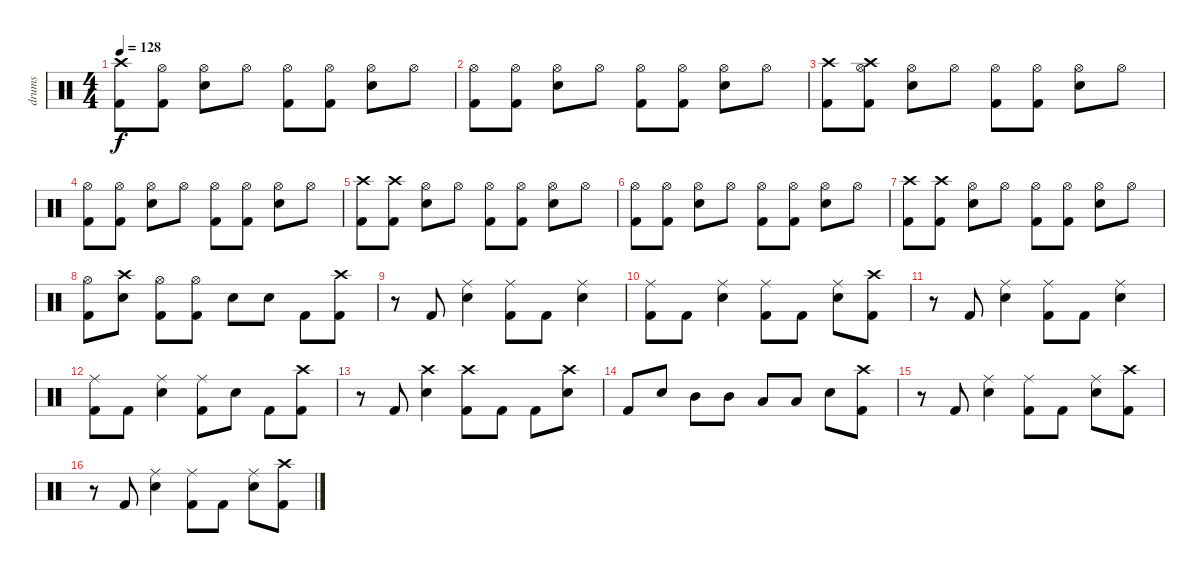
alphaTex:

\track ("drums" "drums") {instrument percussion}
\staff {score}
\articulation defaults
\ts (4 4)
\tempo 128
\clef neutral
\ks c
("Crash high (hit)" "Kick (hit) 2").8{dy f} ("Hi-Hat (open)" "Kick (hit) 2").8 ("Hi-Hat (open)" "Electric Snare (hit)").8 "Hi-Hat (open)".8 ("Hi-Hat (open)" "Kick (hit) 2").8 ("Hi-Hat (open)" "Kick (hit) 2").8 ("Hi-Hat (open)" "Electric Snare (hit)").8 "Hi-Hat (open)".8 |
("Hi-Hat (open)" "Kick (hit) 2").8 ("Hi-Hat (open)" "Kick (hit) 2").8 ("Hi-Hat (open)" "Electric Snare (hit)").8 "Hi-Hat (open)".8 ("Hi-Hat (open)" "Kick (hit) 2").8 ("Hi-Hat (open)" "Kick (hit) 2").8 ("Hi-Hat (open)" "Electric Snare (hit)").8 "Hi-Hat (open)".8 |
("Crash high (hit)" "Kick (hit) 2").8 ("Crash high (hit)" "Hi-Hat (open)" "Kick (hit) 2").8 ("Hi-Hat (open)" "Electric Snare (hit)").8 "Hi-Hat (open)".8 ("Hi-Hat (open)" "Kick (hit) 2").8 ("Hi-Hat (open)" "Kick (hit) 2").8 ("Hi-Hat (open)" "Electric Snare (hit)").8 "Hi-Hat (open)".8 |
("Hi-Hat (open)" "Kick (hit) 2").8 ("Hi-Hat (open)" "Kick (hit) 2").8 ("Hi-Hat (open)" "Electric Snare (hit)").8 "Hi-Hat (open)".8 ("Hi-Hat (open)" "Kick (hit) 2").8 ("Hi-Hat (open)" "Kick (hit) 2").8 ("Hi-Hat (open)" "Electric Snare (hit)").8 "Hi-Hat (open)".8 |
("Crash high (hit)" "Kick (hit) 2").8 ("Crash high (hit)" "Kick (hit) 2").8 ("Hi-Hat (open)" "Electric Snare (hit)").8 "Hi-Hat (open)".8 ("Hi-Hat (open)" "Kick (hit) 2").8 ("Hi-Hat (open)" "Kick (hit) 2").8 ("Hi-Hat (open)" "Electric Snare (hit)").8 "Hi-Hat (open)".8 |
("Hi-Hat (open)" "Kick (hit) 2").8 ("Hi-Hat (open)" "Kick (hit) 2").8 ("Hi-Hat (open)" "Electric Snare (hit)").8 "Hi-Hat (open)".8 ("Hi-Hat (open)" "Kick (hit) 2").8 ("Hi-Hat (open)" "Kick (hit) 2").8 ("Hi-Hat (open)" "Electric Snare (hit)").8 "Hi-Hat (open)".8 |
("Crash high (hit)" "Kick (hit) 2").8 ("Crash high (hit)" "Kick (hit) 2").8 ("Hi-Hat (open)" "Electric Snare (hit)").8 "Hi-Hat (open)".8 ("Hi-Hat (open)" "Kick (hit) 2").8 ("Hi-Hat (open)" "Kick (hit) 2").8 ("Hi-Hat (open)" "Electric Snare (hit)").8 "Hi-Hat (open)".8 |
("Hi-Hat (open)" "Kick (hit) 2").8 ("Crash high (hit)" "Electric Snare (hit)").8 ("Hi-Hat (open)" "Kick (hit) 2").8 ("Hi-Hat (open)" "Kick (hit) 2").8 "Electric Snare (hit)".8 "Electric Snare (hit)".8 "Kick (hit) 2".8 ("Crash high (hit)" "Kick (hit) 2").8 |
r.8 "Kick (hit) 2".8 ("Ride (middle)" "Electric Snare (hit)").4 ("Ride (middle)" "Kick (hit) 2").8 "Kick (hit) 2".8 ("Ride (middle)" "Electric Snare (hit)").4 |
("Ride (middle)" "Kick (hit) 2").8 "Kick (hit) 2".8 ("Ride (middle)" "Electric Snare (hit)").4 ("Ride (middle)" "Kick (hit) 2").8 "Kick (hit) 2".8 ("Ride (middle)" "Electric Snare (hit)").8 ("Crash high (hit)" "Kick (hit) 2").8 |
r.8 "Kick (hit) 2".8 ("Ride (middle)" "Electric Snare (hit)").4 ("Ride (middle)" "Kick (hit) 2").8 "Kick (hit) 2".8 ("Ride (middle)" "Electric Snare (hit)").4 |
("Ride (middle)" "Kick (hit) 2").8 "Kick (hit) 2".8 ("Ride (middle)" "Electric Snare (hit)").4 ("Ride (middle)" "Kick (hit) 2").8 "Electric Snare (hit)".8 "Kick (hit) 2".8 ("Crash high (hit)" "Kick (hit) 2").8 |
r.8 "Kick (hit) 2".8 ("Crash high (hit)" "Electric Snare (hit)").4 ("Crash high (hit)" "Kick (hit) 2").8 "Kick (hit) 2".8 "Kick (hit) 2".8 ("Crash high (hit)" "Electric Snare (hit)").8 |
"Kick (hit) 2".8 "Electric Snare (hit)".8 "Mid Tom (hit)".8 "Mid Tom (hit)".8 "Low Tom (hit)".8 "Low Floor Tom (hit)".8 "Electric Snare (hit)".8 ("Crash high (hit)" "Kick (hit) 2").8 |
r.8 "Kick (hit) 2".8 ("Ride (middle)" "Electric Snare (hit)").4 ("Ride (middle)" "Kick (hit) 2").8 "Kick (hit) 2".8 ("Ride (middle)" "Electric Snare (hit)").8 ("Crash high (hit)" "Kick (hit) 2").8 |
r.8 "Kick (hit) 2".8 ("Ride (middle)" "Electric Snare (hit)").4 ("Ride (middle)" "Kick (hit) 2").8 "Kick (hit) 2".8 ("Ride (middle)" "Electric Snare (hit)").8 ("Crash high (hit)" "Kick (hit) 2").8
